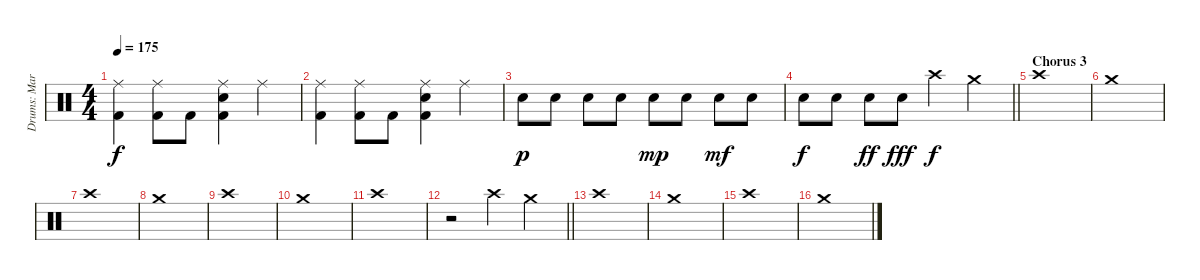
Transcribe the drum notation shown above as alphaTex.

\track ("Drums: Martin Herzinger" "Drums: Mar") {instrument percussion}
\staff {score}
\articulation defaults
\ts (4 4)
\tempo 175
\clef neutral
\ks aminor
("Ride (middle)" "Kick (hit) 2").4{dy f} ("Ride (middle)" "Kick (hit) 2").8 "Kick (hit) 2".8 ("Ride (middle)" "Snare (hit) 2" "Kick (hit) 2").4 "Ride (middle)".4 |
("Ride (middle)" "Kick (hit) 2").4 ("Ride (middle)" "Kick (hit) 2").8 "Kick (hit) 2".8 ("Ride (middle)" "Snare (hit) 2" "Kick (hit) 2").4 "Ride (middle)".4 |
"Snare (hit) 2".8{dy p} "Snare (hit) 2".8 "Snare (hit) 2".8 "Snare (hit) 2".8 "Snare (hit) 2".8{dy mp} "Snare (hit) 2".8 "Snare (hit) 2".8{dy mf} "Snare (hit) 2".8 |
\barLineRight lightlight "Snare (hit) 2".8{dy f} "Snare (hit) 2".8 "Snare (hit) 2".8{dy ff} "Snare (hit) 2".8{dy fff} "Crash high (hit)".4{dy f} "Crash medium (hit)".4
|
\section ("" "Chorus 3")
"Crash high (hit)".1 |
"Crash medium (hit)".1 |
"Crash high (hit)".1 |
"Crash medium (hit)".1 |
"Crash high (hit)".1 |
"Crash medium (hit)".1 |
"Crash high (hit)".1 |
\barLineRight lightlight
r.2 "Crash high (hit)".4 "Crash medium (hit)".4 |
"Crash high (hit)".1 |
"Crash medium (hit)".1 |
"Crash high (hit)".1 |
"Crash medium (hit)".1
